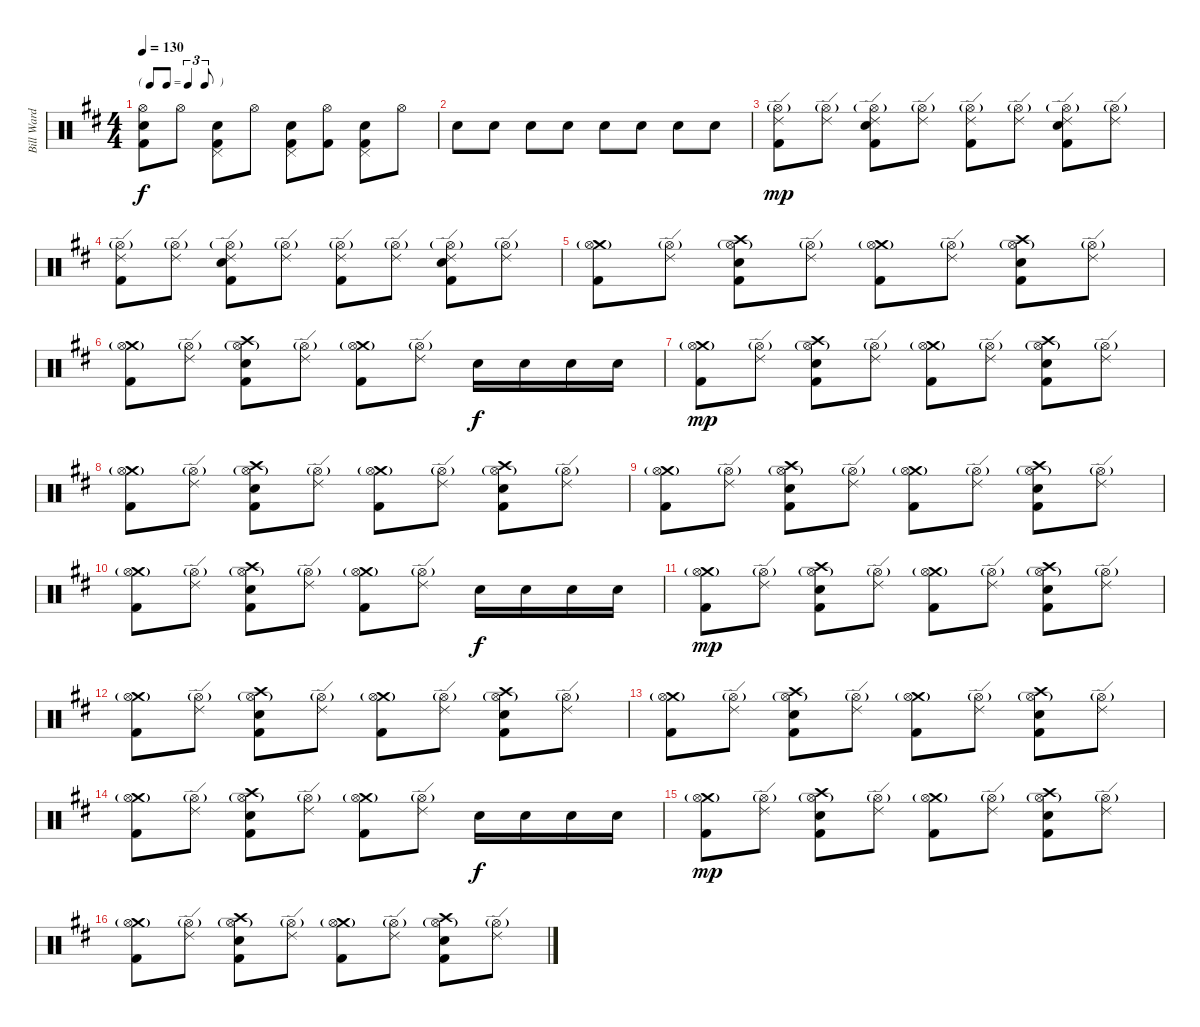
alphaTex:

\track ("Bill Ward" "Bill Ward") {instrument percussion}
\staff {score}
\articulation defaults
\ts (4 4)
\tf triplet8th
\tempo 130
\clef neutral
\ks d
("Hi-Hat (open)" "Snare (hit) 2" "Kick (hit) 2").8{dy f} "Hi-Hat (open)".8 ("Pedal Hi-Hat (hit)" "Snare (hit) 2" "Kick (hit) 2").8 "Hi-Hat (open)".8 ("Pedal Hi-Hat (hit)" "Snare (hit) 2" "Kick (hit) 2").8 ("Hi-Hat (open)" "Kick (hit) 2").8 ("Pedal Hi-Hat (hit)" "Snare (hit) 2" "Kick (hit) 2").8 "Hi-Hat (open)".8 |
"Snare (hit) 2".8 "Snare (hit) 2".8 "Snare (hit) 2".8 "Snare (hit) 2".8 "Snare (hit) 2".8 "Snare (hit) 2".8 "Snare (hit) 2".8 "Snare (hit) 2".8 |
("Ride (edge) 2" "Hi-Hat (open)"{g} "Kick (hit) 2").8{dy mp} ("Ride (edge) 2" "Hi-Hat (open)"{g}).8 ("Ride (edge) 2" "Hi-Hat (open)"{g} "Snare (hit) 2" "Kick (hit) 2").8 ("Ride (edge) 2" "Hi-Hat (open)"{g}).8 ("Ride (edge) 2" "Hi-Hat (open)"{g} "Kick (hit) 2").8 ("Ride (edge) 2" "Hi-Hat (open)"{g}).8 ("Ride (edge) 2" "Hi-Hat (open)"{g} "Snare (hit) 2" "Kick (hit) 2").8 ("Ride (edge) 2" "Hi-Hat (open)"{g}).8 |
("Ride (edge) 2" "Hi-Hat (open)"{g} "Kick (hit) 2").8 ("Ride (edge) 2" "Hi-Hat (open)"{g}).8 ("Ride (edge) 2" "Hi-Hat (open)"{g} "Snare (hit) 2" "Kick (hit) 2").8 ("Ride (edge) 2" "Hi-Hat (open)"{g}).8 ("Ride (edge) 2" "Hi-Hat (open)"{g} "Kick (hit) 2").8 ("Ride (edge) 2" "Hi-Hat (open)"{g}).8 ("Ride (edge) 2" "Hi-Hat (open)"{g} "Snare (hit) 2" "Kick (hit) 2").8 ("Ride (edge) 2" "Hi-Hat (open)"{g}).8 |
("Crash medium (hit)" "Hi-Hat (open)"{g} "Kick (hit) 2").8 ("Ride (edge) 2" "Hi-Hat (open)"{g}).8 ("Crash high (hit)" "Hi-Hat (open)"{g} "Snare (hit) 2" "Kick (hit) 2").8 ("Ride (edge) 2" "Hi-Hat (open)"{g}).8 ("Crash medium (hit)" "Hi-Hat (open)"{g} "Kick (hit) 2").8 ("Ride (edge) 2" "Hi-Hat (open)"{g}).8 ("Crash high (hit)" "Hi-Hat (open)"{g} "Snare (hit) 2" "Kick (hit) 2").8 ("Ride (edge) 2" "Hi-Hat (open)"{g}).8 |
("Crash medium (hit)" "Hi-Hat (open)"{g} "Kick (hit) 2").8 ("Ride (edge) 2" "Hi-Hat (open)"{g}).8 ("Crash high (hit)" "Hi-Hat (open)"{g} "Snare (hit) 2" "Kick (hit) 2").8 ("Ride (edge) 2" "Hi-Hat (open)"{g}).8 ("Crash medium (hit)" "Hi-Hat (open)"{g} "Kick (hit) 2").8 ("Ride (edge) 2" "Hi-Hat (open)"{g}).8 "Snare (hit) 2".16{dy f} "Snare (hit) 2".16 "Snare (hit) 2".16 "Snare (hit) 2".16 |
("Crash medium (hit)" "Hi-Hat (open)"{g} "Kick (hit) 2").8{dy mp} ("Ride (edge) 2" "Hi-Hat (open)"{g}).8 ("Crash high (hit)" "Hi-Hat (open)"{g} "Snare (hit) 2" "Kick (hit) 2").8 ("Ride (edge) 2" "Hi-Hat (open)"{g}).8 ("Crash medium (hit)" "Hi-Hat (open)"{g} "Kick (hit) 2").8 ("Ride (edge) 2" "Hi-Hat (open)"{g}).8 ("Crash high (hit)" "Hi-Hat (open)"{g} "Snare (hit) 2" "Kick (hit) 2").8 ("Ride (edge) 2" "Hi-Hat (open)"{g}).8 |
("Crash medium (hit)" "Hi-Hat (open)"{g} "Kick (hit) 2").8 ("Ride (edge) 2" "Hi-Hat (open)"{g}).8 ("Crash high (hit)" "Hi-Hat (open)"{g} "Snare (hit) 2" "Kick (hit) 2").8 ("Ride (edge) 2" "Hi-Hat (open)"{g}).8 ("Crash medium (hit)" "Hi-Hat (open)"{g} "Kick (hit) 2").8 ("Ride (edge) 2" "Hi-Hat (open)"{g}).8 ("Crash high (hit)" "Hi-Hat (open)"{g} "Snare (hit) 2" "Kick (hit) 2").8 ("Ride (edge) 2" "Hi-Hat (open)"{g}).8 |
("Crash medium (hit)" "Hi-Hat (open)"{g} "Kick (hit) 2").8 ("Ride (edge) 2" "Hi-Hat (open)"{g}).8 ("Crash high (hit)" "Hi-Hat (open)"{g} "Snare (hit) 2" "Kick (hit) 2").8 ("Ride (edge) 2" "Hi-Hat (open)"{g}).8 ("Crash medium (hit)" "Hi-Hat (open)"{g} "Kick (hit) 2").8 ("Ride (edge) 2" "Hi-Hat (open)"{g}).8 ("Crash high (hit)" "Hi-Hat (open)"{g} "Snare (hit) 2" "Kick (hit) 2").8 ("Ride (edge) 2" "Hi-Hat (open)"{g}).8 |
("Crash medium (hit)" "Hi-Hat (open)"{g} "Kick (hit) 2").8 ("Ride (edge) 2" "Hi-Hat (open)"{g}).8 ("Crash high (hit)" "Hi-Hat (open)"{g} "Snare (hit) 2" "Kick (hit) 2").8 ("Ride (edge) 2" "Hi-Hat (open)"{g}).8 ("Crash medium (hit)" "Hi-Hat (open)"{g} "Kick (hit) 2").8 ("Ride (edge) 2" "Hi-Hat (open)"{g}).8 "Snare (hit) 2".16{dy f} "Snare (hit) 2".16 "Snare (hit) 2".16 "Snare (hit) 2".16 |
("Crash medium (hit)" "Hi-Hat (open)"{g} "Kick (hit) 2").8{dy mp} ("Ride (edge) 2" "Hi-Hat (open)"{g}).8 ("Crash high (hit)" "Hi-Hat (open)"{g} "Snare (hit) 2" "Kick (hit) 2").8 ("Ride (edge) 2" "Hi-Hat (open)"{g}).8 ("Crash medium (hit)" "Hi-Hat (open)"{g} "Kick (hit) 2").8 ("Ride (edge) 2" "Hi-Hat (open)"{g}).8 ("Crash high (hit)" "Hi-Hat (open)"{g} "Snare (hit) 2" "Kick (hit) 2").8 ("Ride (edge) 2" "Hi-Hat (open)"{g}).8 |
("Crash medium (hit)" "Hi-Hat (open)"{g} "Kick (hit) 2").8 ("Ride (edge) 2" "Hi-Hat (open)"{g}).8 ("Crash high (hit)" "Hi-Hat (open)"{g} "Snare (hit) 2" "Kick (hit) 2").8 ("Ride (edge) 2" "Hi-Hat (open)"{g}).8 ("Crash medium (hit)" "Hi-Hat (open)"{g} "Kick (hit) 2").8 ("Ride (edge) 2" "Hi-Hat (open)"{g}).8 ("Crash high (hit)" "Hi-Hat (open)"{g} "Snare (hit) 2" "Kick (hit) 2").8 ("Ride (edge) 2" "Hi-Hat (open)"{g}).8 |
("Crash medium (hit)" "Hi-Hat (open)"{g} "Kick (hit) 2").8 ("Ride (edge) 2" "Hi-Hat (open)"{g}).8 ("Crash high (hit)" "Hi-Hat (open)"{g} "Snare (hit) 2" "Kick (hit) 2").8 ("Ride (edge) 2" "Hi-Hat (open)"{g}).8 ("Crash medium (hit)" "Hi-Hat (open)"{g} "Kick (hit) 2").8 ("Ride (edge) 2" "Hi-Hat (open)"{g}).8 ("Crash high (hit)" "Hi-Hat (open)"{g} "Snare (hit) 2" "Kick (hit) 2").8 ("Ride (edge) 2" "Hi-Hat (open)"{g}).8 |
("Crash medium (hit)" "Hi-Hat (open)"{g} "Kick (hit) 2").8 ("Ride (edge) 2" "Hi-Hat (open)"{g}).8 ("Crash high (hit)" "Hi-Hat (open)"{g} "Snare (hit) 2" "Kick (hit) 2").8 ("Ride (edge) 2" "Hi-Hat (open)"{g}).8 ("Crash medium (hit)" "Hi-Hat (open)"{g} "Kick (hit) 2").8 ("Ride (edge) 2" "Hi-Hat (open)"{g}).8 "Snare (hit) 2".16{dy f} "Snare (hit) 2".16 "Snare (hit) 2".16 "Snare (hit) 2".16 |
("Crash medium (hit)" "Hi-Hat (open)"{g} "Kick (hit) 2").8{dy mp} ("Ride (edge) 2" "Hi-Hat (open)"{g}).8 ("Crash high (hit)" "Hi-Hat (open)"{g} "Snare (hit) 2" "Kick (hit) 2").8 ("Ride (edge) 2" "Hi-Hat (open)"{g}).8 ("Crash medium (hit)" "Hi-Hat (open)"{g} "Kick (hit) 2").8 ("Ride (edge) 2" "Hi-Hat (open)"{g}).8 ("Crash high (hit)" "Hi-Hat (open)"{g} "Snare (hit) 2" "Kick (hit) 2").8 ("Ride (edge) 2" "Hi-Hat (open)"{g}).8 |
("Crash medium (hit)" "Hi-Hat (open)"{g} "Kick (hit) 2").8 ("Ride (edge) 2" "Hi-Hat (open)"{g}).8 ("Crash high (hit)" "Hi-Hat (open)"{g} "Snare (hit) 2" "Kick (hit) 2").8 ("Ride (edge) 2" "Hi-Hat (open)"{g}).8 ("Crash medium (hit)" "Hi-Hat (open)"{g} "Kick (hit) 2").8 ("Ride (edge) 2" "Hi-Hat (open)"{g}).8 ("Crash high (hit)" "Hi-Hat (open)"{g} "Snare (hit) 2" "Kick (hit) 2").8 ("Ride (edge) 2" "Hi-Hat (open)"{g}).8
